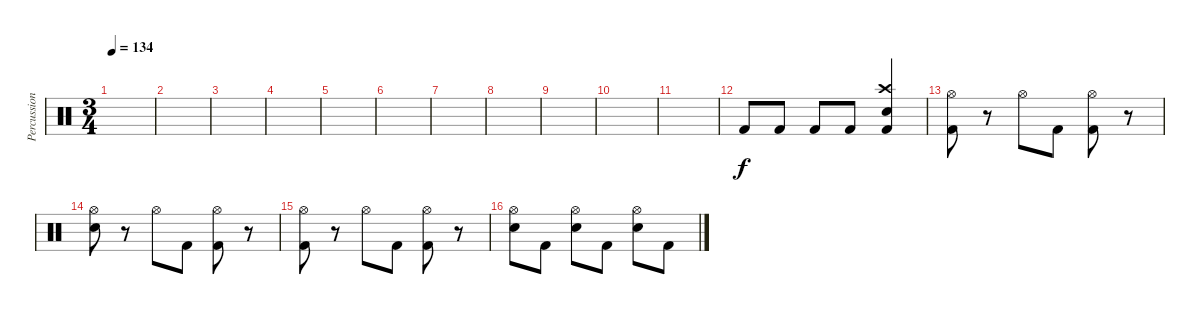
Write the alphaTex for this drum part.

\track ("Percussion" "Percussion") {instrument percussion}
\staff {score}
\articulation defaults
\ts (3 4)
\tempo 134
\clef neutral
\ks c
|
|
|
|
|
|
|
|
|
|
|
"Kick (hit) 2".8 "Kick (hit) 2".8 "Kick (hit) 2".8 "Kick (hit) 2".8 ("Crash high (hit)" "Snare (hit) 2" "Kick (hit) 2").4 |
("Hi-Hat (open)" "Kick (hit) 2").8 r.8 "Hi-Hat (open)".8 "Kick (hit) 2".8 ("Hi-Hat (open)" "Kick (hit) 2").8 r.8 |
("Hi-Hat (open)" "Snare (hit) 2").8 r.8 "Hi-Hat (open)".8 "Kick (hit) 2".8 ("Hi-Hat (open)" "Kick (hit) 2").8 r.8 |
("Hi-Hat (open)" "Kick (hit) 2").8 r.8 "Hi-Hat (open)".8 "Kick (hit) 2".8 ("Hi-Hat (open)" "Kick (hit) 2").8 r.8 |
("Hi-Hat (open)" "Snare (hit) 2").8 "Kick (hit) 2".8 ("Hi-Hat (open)" "Snare (hit) 2").8 "Kick (hit) 2".8 ("Hi-Hat (open)" "Snare (hit) 2").8 "Kick (hit) 2".8
